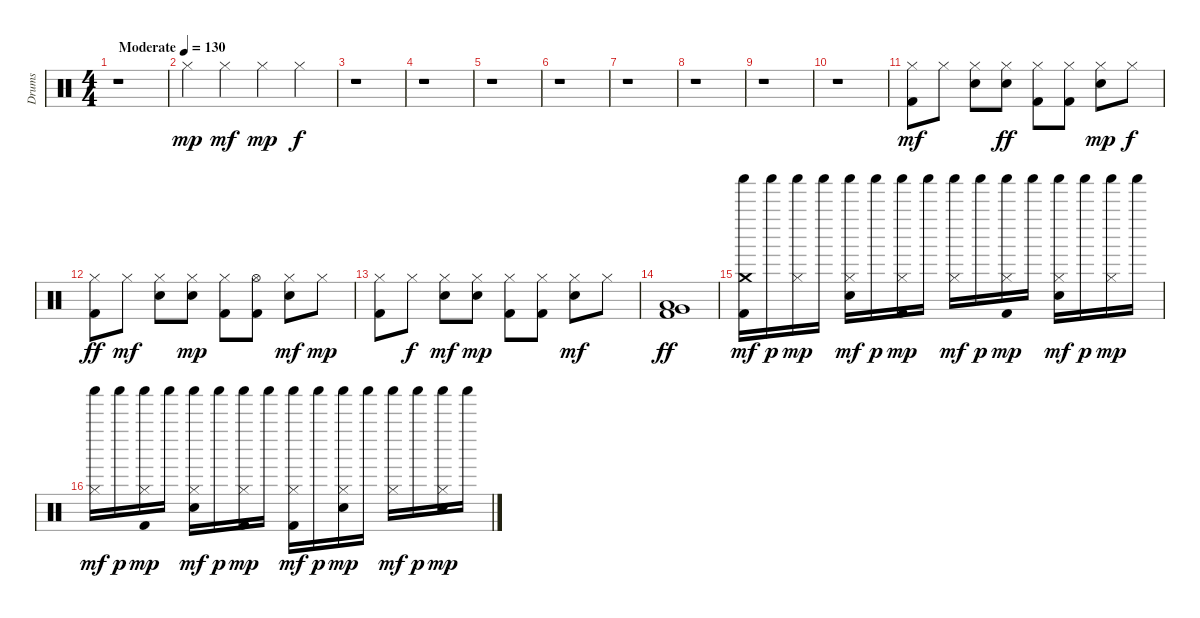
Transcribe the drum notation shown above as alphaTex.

\track ("Drums" "Drums") {instrument percussion}
\staff {score}
\articulation defaults
\ts (4 4)
\tempo (130 "Moderate")
\clef neutral
\ks c
r.1{dy mp} |
"Hi-Hat (closed)".4 "Hi-Hat (closed)".4{dy mf} "Hi-Hat (closed)".4{dy mp} "Hi-Hat (closed)".4{dy f} |
r.1 |
r.1 |
r.1 |
r.1 |
r.1 |
r.1 |
r.1 |
r.1 |
("Kick (hit) 2" "Hi-Hat (closed)").8{dy mf} "Hi-Hat (closed)".8 ("Snare (hit) 2" "Hi-Hat (closed)").8 ("Snare (hit) 2" "Hi-Hat (closed)").8{dy ff} ("Kick (hit) 2" "Hi-Hat (closed)").8 ("Kick (hit) 2" "Hi-Hat (closed)").8 ("Snare (hit) 2" "Hi-Hat (closed)").8{dy mp} "Hi-Hat (closed)".8{dy f} |
("Kick (hit) 2" "Hi-Hat (closed)").8{dy ff} "Hi-Hat (closed)".8{dy mf} ("Snare (hit) 2" "Hi-Hat (closed)").8 ("Snare (hit) 2" "Hi-Hat (closed)").8{dy mp} ("Kick (hit) 2" "Hi-Hat (closed)").8 ("Kick (hit) 2" "Hi-Hat (open)").8 ("Snare (hit) 2" "Hi-Hat (closed)").8{dy mf} "Hi-Hat (closed)".8{dy mp} |
("Kick (hit) 2" "Hi-Hat (closed)").8 "Hi-Hat (closed)".8{dy f} ("Snare (hit) 2" "Hi-Hat (closed)").8{dy mf} ("Snare (hit) 2" "Hi-Hat (closed)").8{dy mp} ("Kick (hit) 2" "Hi-Hat (closed)").8 ("Kick (hit) 2" "Hi-Hat (closed)").8 ("Snare (hit) 2" "Hi-Hat (closed)").8{dy mf} "Hi-Hat (closed)".8 |
("Kick (hit) 2" "Low Floor Tom (hit)" "Very Low Tom (hit)").1{dy ff} |
("Kick (hit) 2" "Crash medium (hit)" "Shaker (hit)").16{dy mf} "Shaker (hit)".16{dy p} ("Hi-Hat (closed)" "Shaker (hit)").16{dy mp} "Shaker (hit)".16 ("Snare (hit) 2" "Hi-Hat (closed)" "Shaker (hit)").16{dy mf} "Shaker (hit)".16{dy p} ("Kick (hit) 2" "Hi-Hat (closed)" "Shaker (hit)").16{dy mp} "Shaker (hit)".16 ("Hi-Hat (closed)" "Shaker (hit)").16{dy mf} "Shaker (hit)".16{dy p} ("Kick (hit) 2" "Hi-Hat (closed)" "Shaker (hit)").16{dy mp} "Shaker (hit)".16 ("Snare (hit) 2" "Hi-Hat (closed)" "Shaker (hit)").16{dy mf} "Shaker (hit)".16{dy p} ("Hi-Hat (closed)" "Shaker (hit)").16{dy mp} "Shaker (hit)".16 |
("Hi-Hat (closed)" "Shaker (hit)").16{dy mf} "Shaker (hit)".16{dy p} ("Kick (hit) 2" "Hi-Hat (closed)" "Shaker (hit)").16{dy mp} "Shaker (hit)".16 ("Snare (hit) 2" "Hi-Hat (closed)" "Shaker (hit)").16{dy mf} "Shaker (hit)".16{dy p} ("Kick (hit) 2" "Hi-Hat (closed)" "Shaker (hit)").16{dy mp} "Shaker (hit)".16 ("Kick (hit) 2" "Hi-Hat (closed)" "Shaker (hit)").16{dy mf} "Shaker (hit)".16{dy p} ("Snare (hit) 2" "Hi-Hat (closed)" "Shaker (hit)").16{dy mp} "Shaker (hit)".16 ("Hi-Hat (closed)" "Shaker (hit)").16{dy mf} "Shaker (hit)".16{dy p} ("Snare (hit) 2" "Hi-Hat (closed)" "Shaker (hit)").16{dy mp} "Shaker (hit)".16
